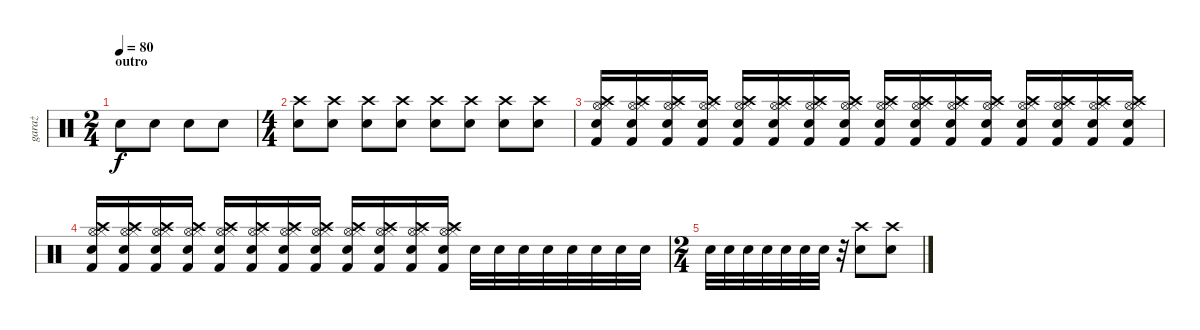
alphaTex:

\track ("garaż" "garaż") {instrument percussion}
\staff {score}
\articulation defaults
\ts (2 4)
\section ("" "outro")
\tempo 80
\clef neutral
\ks c "Snare (hit) 2".8{dy f} "Snare (hit) 2".8 "Snare (hit) 2".8 "Snare (hit) 2".8
|
\ts (4 4)
("Crash high (hit)" "Snare (hit) 2").8 ("Crash high (hit)" "Snare (hit) 2").8 ("Crash high (hit)" "Snare (hit) 2").8 ("Crash high (hit)" "Snare (hit) 2").8 ("Crash high (hit)" "Snare (hit) 2").8 ("Crash high (hit)" "Snare (hit) 2").8 ("Crash high (hit)" "Snare (hit) 2").8 ("Crash high (hit)" "Snare (hit) 2").8 |
("Crash high (hit)" "Hi-Hat (open)" "Hi-Hat (closed)" "Snare (hit) 2" "Kick (hit) 2").16 ("Crash high (hit)" "Hi-Hat (open)" "Hi-Hat (closed)" "Snare (hit) 2" "Kick (hit) 2").16 ("Crash high (hit)" "Hi-Hat (open)" "Hi-Hat (closed)" "Snare (hit) 2" "Kick (hit) 2").16 ("Crash high (hit)" "Hi-Hat (open)" "Hi-Hat (closed)" "Snare (hit) 2" "Kick (hit) 2").16 ("Crash high (hit)" "Hi-Hat (open)" "Hi-Hat (closed)" "Snare (hit) 2" "Kick (hit) 2").16 ("Crash high (hit)" "Hi-Hat (open)" "Hi-Hat (closed)" "Snare (hit) 2" "Kick (hit) 2").16 ("Crash high (hit)" "Hi-Hat (open)" "Hi-Hat (closed)" "Snare (hit) 2" "Kick (hit) 2").16 ("Crash high (hit)" "Hi-Hat (open)" "Hi-Hat (closed)" "Snare (hit) 2" "Kick (hit) 2").16 ("Crash high (hit)" "Hi-Hat (open)" "Hi-Hat (closed)" "Snare (hit) 2" "Kick (hit) 2").16 ("Crash high (hit)" "Hi-Hat (open)" "Hi-Hat (closed)" "Snare (hit) 2" "Kick (hit) 2").16 ("Crash high (hit)" "Hi-Hat (open)" "Hi-Hat (closed)" "Snare (hit) 2" "Kick (hit) 2").16 ("Crash high (hit)" "Hi-Hat (open)" "Hi-Hat (closed)" "Snare (hit) 2" "Kick (hit) 2").16 ("Crash high (hit)" "Hi-Hat (open)" "Hi-Hat (closed)" "Snare (hit) 2" "Kick (hit) 2").16 ("Crash high (hit)" "Hi-Hat (open)" "Hi-Hat (closed)" "Snare (hit) 2" "Kick (hit) 2").16 ("Crash high (hit)" "Hi-Hat (open)" "Hi-Hat (closed)" "Snare (hit) 2" "Kick (hit) 2").16 ("Crash high (hit)" "Hi-Hat (open)" "Hi-Hat (closed)" "Snare (hit) 2" "Kick (hit) 2").16 |
("Crash high (hit)" "Hi-Hat (open)" "Hi-Hat (closed)" "Snare (hit) 2" "Kick (hit) 2").16 ("Crash high (hit)" "Hi-Hat (open)" "Hi-Hat (closed)" "Snare (hit) 2" "Kick (hit) 2").16 ("Crash high (hit)" "Hi-Hat (open)" "Hi-Hat (closed)" "Snare (hit) 2" "Kick (hit) 2").16 ("Crash high (hit)" "Hi-Hat (open)" "Hi-Hat (closed)" "Snare (hit) 2" "Kick (hit) 2").16 ("Crash high (hit)" "Hi-Hat (open)" "Hi-Hat (closed)" "Snare (hit) 2" "Kick (hit) 2").16 ("Crash high (hit)" "Hi-Hat (open)" "Hi-Hat (closed)" "Snare (hit) 2" "Kick (hit) 2").16 ("Crash high (hit)" "Hi-Hat (open)" "Hi-Hat (closed)" "Snare (hit) 2" "Kick (hit) 2").16 ("Crash high (hit)" "Hi-Hat (open)" "Hi-Hat (closed)" "Snare (hit) 2" "Kick (hit) 2").16 ("Crash high (hit)" "Hi-Hat (open)" "Hi-Hat (closed)" "Snare (hit) 2" "Kick (hit) 2").16 ("Crash high (hit)" "Hi-Hat (open)" "Hi-Hat (closed)" "Snare (hit) 2" "Kick (hit) 2").16 ("Crash high (hit)" "Hi-Hat (open)" "Hi-Hat (closed)" "Snare (hit) 2" "Kick (hit) 2").16 ("Crash high (hit)" "Hi-Hat (open)" "Hi-Hat (closed)" "Snare (hit) 2" "Kick (hit) 2").16 "Snare (hit) 2".32 "Snare (hit) 2".32 "Snare (hit) 2".32 "Snare (hit) 2".32 "Snare (hit) 2".32 "Snare (hit) 2".32 "Snare (hit) 2".32 "Snare (hit) 2".32 |
\ts (2 4)
"Snare (hit) 2".32 "Snare (hit) 2".32 "Snare (hit) 2".32 "Snare (hit) 2".32 "Snare (hit) 2".32 "Snare (hit) 2".32 "Snare (hit) 2".32 r.32 ("Snare (hit) 2" "Crash high (hit)").8 ("Snare (hit) 2" "Crash high (hit)").8
